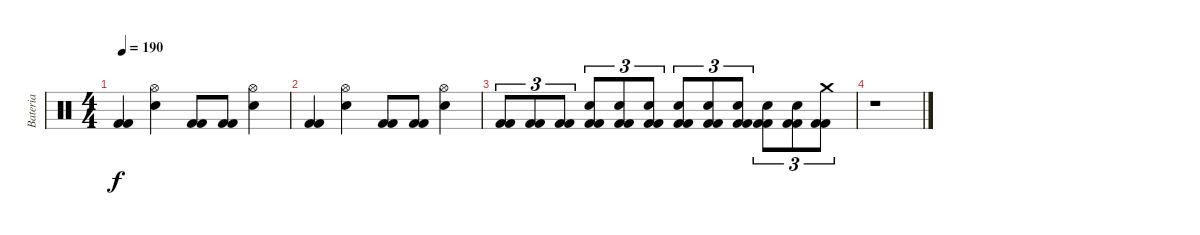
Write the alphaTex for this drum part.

\track ("Bateria" "Bateria") {instrument percussion}
\staff {score}
\articulation defaults
\ts (4 4)
\tempo 190
\clef neutral
\ks c
("Kick (hit) 2" "Kick (hit) 2").4{dy f} ("Hi-Hat (open)" "Snare (hit) 2").4 ("Kick (hit) 2" "Kick (hit) 2").8 ("Kick (hit) 2" "Kick (hit) 2").8 ("Hi-Hat (open)" "Snare (hit) 2").4 |
("Kick (hit) 2" "Kick (hit) 2").4 ("Hi-Hat (open)" "Snare (hit) 2").4 ("Kick (hit) 2" "Kick (hit) 2").8 ("Kick (hit) 2" "Kick (hit) 2").8 ("Hi-Hat (open)" "Snare (hit) 2").4 |
("Kick (hit) 2" "Kick (hit) 2").8{tu (3 2)} ("Kick (hit) 2" "Kick (hit) 2").8{tu (3 2)} ("Kick (hit) 2" "Kick (hit) 2").8{tu (3 2)} ("Kick (hit) 2" "Kick (hit) 2" "Snare (hit) 2").8{tu (3 2)} ("Kick (hit) 2" "Kick (hit) 2" "Snare (hit) 2").8{tu (3 2)} ("Kick (hit) 2" "Kick (hit) 2" "Snare (hit) 2").8{tu (3 2)} ("Kick (hit) 2" "Kick (hit) 2" "Snare (hit) 2").8{tu (3 2)} ("Kick (hit) 2" "Kick (hit) 2" "Snare (hit) 2").8{tu (3 2)} ("Kick (hit) 2" "Kick (hit) 2" "Snare (hit) 2").8{tu (3 2)} ("Kick (hit) 2" "Kick (hit) 2" "Snare (hit) 2").8{tu (3 2)} ("Kick (hit) 2" "Kick (hit) 2" "Snare (hit) 2").8{tu (3 2)} ("Kick (hit) 2" "Kick (hit) 2" "Crash medium (hit)").8{tu (3 2)} |
r.1
